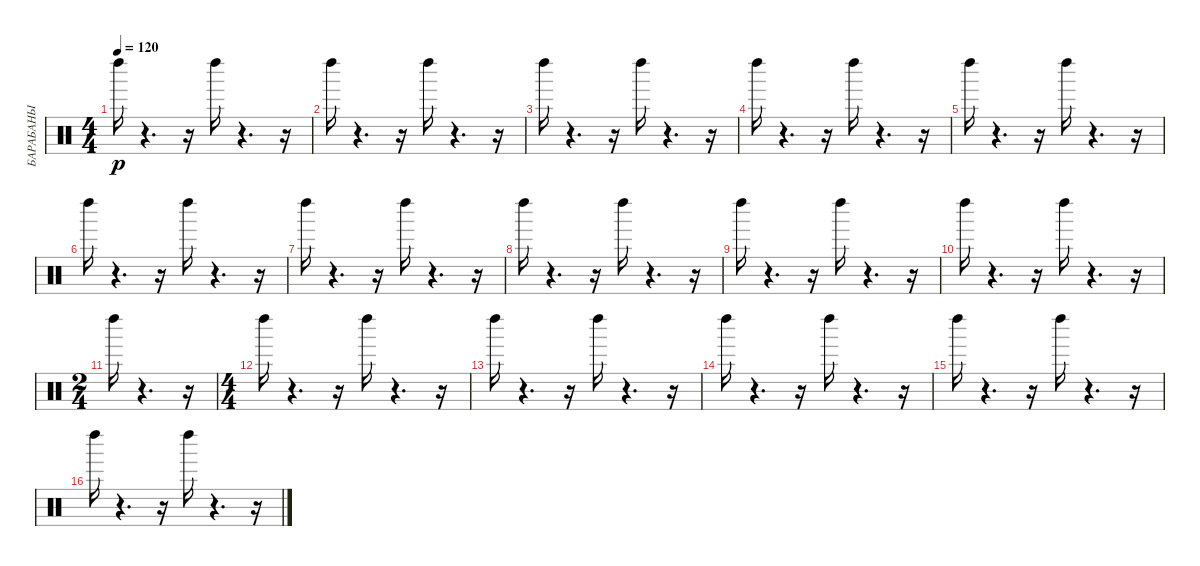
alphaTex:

\track ("БАРАБАНЫ" "БАРАБАНЫ") {instrument percussion}
\staff {score}
\articulation defaults
\ts (4 4)
\tempo 120
\clef neutral
\ks c "Left Maraca (hit)".16{dy p}
r.4{d} r.16 "Left Maraca (hit)".16 r.4{d} r.16 |
"Left Maraca (hit)".16 r.4{d} r.16 "Left Maraca (hit)".16 r.4{d} r.16 |
"Left Maraca (hit)".16 r.4{d} r.16 "Left Maraca (hit)".16 r.4{d} r.16 |
"Left Maraca (hit)".16 r.4{d} r.16 "Left Maraca (hit)".16 r.4{d} r.16 |
"Left Maraca (hit)".16 r.4{d} r.16 "Left Maraca (hit)".16 r.4{d} r.16 |
"Left Maraca (hit)".16 r.4{d} r.16 "Left Maraca (hit)".16 r.4{d} r.16 |
"Left Maraca (hit)".16 r.4{d} r.16 "Left Maraca (hit)".16 r.4{d} r.16 |
"Left Maraca (hit)".16 r.4{d} r.16 "Left Maraca (hit)".16 r.4{d} r.16 |
"Left Maraca (hit)".16 r.4{d} r.16 "Left Maraca (hit)".16 r.4{d} r.16 |
"Left Maraca (hit)".16 r.4{d} r.16 "Left Maraca (hit)".16 r.4{d} r.16 |
\ts (2 4)
"Left Maraca (hit)".16 r.4{d} r.16 |
\ts (4 4)
"Left Maraca (hit)".16 r.4{d} r.16 "Left Maraca (hit)".16 r.4{d} r.16 |
"Left Maraca (hit)".16 r.4{d} r.16 "Left Maraca (hit)".16 r.4{d} r.16 |
"Left Maraca (hit)".16 r.4{d} r.16 "Left Maraca (hit)".16 r.4{d} r.16 |
"Left Maraca (hit)".16 r.4{d} r.16 "Left Maraca (hit)".16 r.4{d} r.16 |
"Left Maraca (hit)".16 r.4{d} r.16 "Left Maraca (hit)".16 r.4{d} r.16
